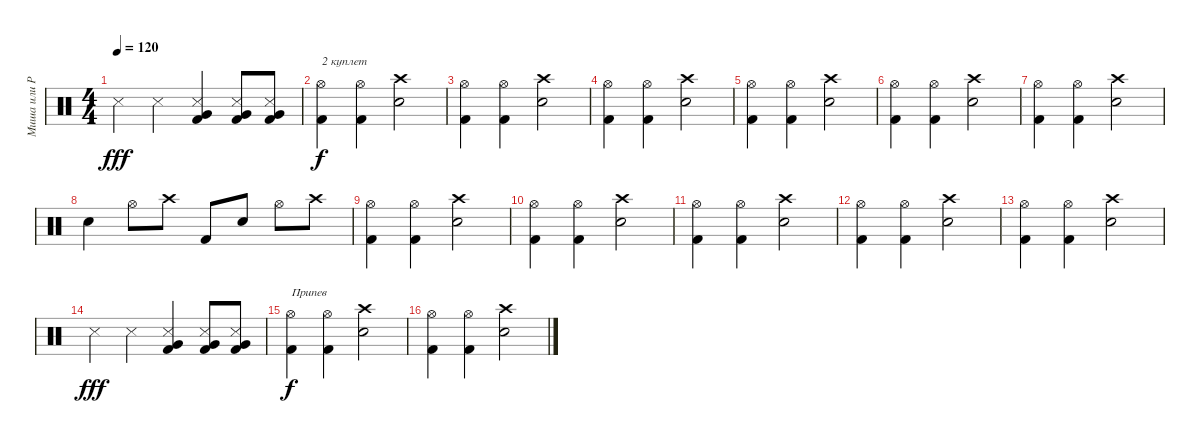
\track ("Миша или Рома" "Миша или Р") {instrument percussion}
\staff {score}
\articulation defaults
\ts (4 4)
\tempo 120
\clef neutral
\ks c "Metronome (hit)".4{dy fff} "Metronome (hit)".4
("Metronome (hit)" "Very Low Tom (hit)" "Kick (hit) 2").4 ("Metronome (hit)" "Very Low Tom (hit)" "Kick (hit) 2").8 ("Metronome (hit)" "Very Low Tom (hit)" "Kick (hit) 2").8 |
("Hi-Hat (open)" "Kick (hit) 2").4{txt "2 куплет" dy f} ("Hi-Hat (open)" "Kick (hit) 2").4 ("Crash high (hit)" "Snare (hit) 2").2 |
("Hi-Hat (open)" "Kick (hit) 2").4 ("Hi-Hat (open)" "Kick (hit) 2").4 ("Crash high (hit)" "Snare (hit) 2").2 |
("Hi-Hat (open)" "Kick (hit) 2").4 ("Hi-Hat (open)" "Kick (hit) 2").4 ("Crash high (hit)" "Snare (hit) 2").2 |
("Hi-Hat (open)" "Kick (hit) 2").4 ("Hi-Hat (open)" "Kick (hit) 2").4 ("Crash high (hit)" "Snare (hit) 2").2 |
("Hi-Hat (open)" "Kick (hit) 2").4 ("Hi-Hat (open)" "Kick (hit) 2").4 ("Crash high (hit)" "Snare (hit) 2").2 |
("Hi-Hat (open)" "Kick (hit) 2").4 ("Hi-Hat (open)" "Kick (hit) 2").4 ("Crash high (hit)" "Snare (hit) 2").2 |
"Snare (hit) 2".4 "Hi-Hat (open)".8 "Crash high (hit)".8 "Kick (hit) 2".8 "Snare (hit) 2".8 "Hi-Hat (open)".8 "Crash high (hit)".8 |
("Hi-Hat (open)" "Kick (hit) 2").4 ("Hi-Hat (open)" "Kick (hit) 2").4 ("Crash high (hit)" "Snare (hit) 2").2 |
("Hi-Hat (open)" "Kick (hit) 2").4 ("Hi-Hat (open)" "Kick (hit) 2").4 ("Crash high (hit)" "Snare (hit) 2").2 |
("Hi-Hat (open)" "Kick (hit) 2").4 ("Hi-Hat (open)" "Kick (hit) 2").4 ("Crash high (hit)" "Snare (hit) 2").2 |
("Hi-Hat (open)" "Kick (hit) 2").4 ("Hi-Hat (open)" "Kick (hit) 2").4 ("Crash high (hit)" "Snare (hit) 2").2 |
("Hi-Hat (open)" "Kick (hit) 2").4 ("Hi-Hat (open)" "Kick (hit) 2").4 ("Crash high (hit)" "Snare (hit) 2").2 |
"Metronome (hit)".4{dy fff} "Metronome (hit)".4 ("Metronome (hit)" "Very Low Tom (hit)" "Kick (hit) 2").4 ("Metronome (hit)" "Very Low Tom (hit)" "Kick (hit) 2").8 ("Metronome (hit)" "Very Low Tom (hit)" "Kick (hit) 2").8 |
("Hi-Hat (open)" "Kick (hit) 2").4{txt "Припев" dy f} ("Hi-Hat (open)" "Kick (hit) 2").4 ("Crash high (hit)" "Snare (hit) 2").2 |
("Hi-Hat (open)" "Kick (hit) 2").4 ("Hi-Hat (open)" "Kick (hit) 2").4 ("Crash high (hit)" "Snare (hit) 2").2
